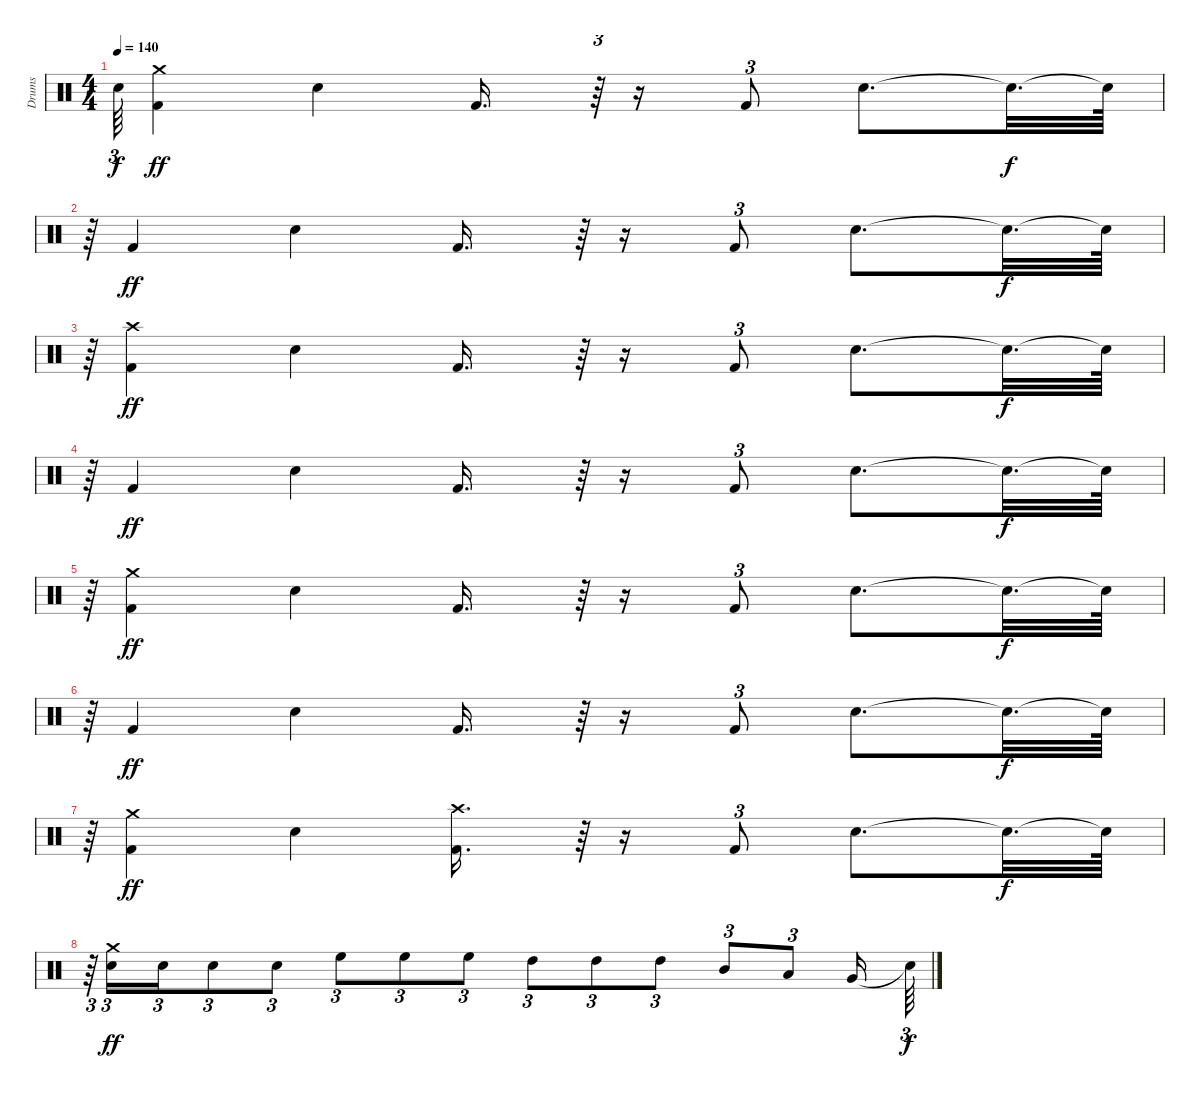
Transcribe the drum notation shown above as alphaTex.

\track ("Drums" "Drums") {instrument percussion}
\staff {score}
\articulation defaults
\ts (4 4)
\tempo 140
\clef neutral
\ks c "Snare (hit)"{t}.64{tu (3 2) dy f}
("Kick (hit) 2" "Crash medium (hit)").4{dy ff} "Snare (hit) 2".4 "Kick (hit) 2".16{d} r.64{tu (3 2)} r.16 "Kick (hit) 2".8{tu (3 2)} "Snare (hit) 2".8{d} "Snare (hit)"{t}.32{d dy f} "Snare (hit)"{t}.64 |
r.64{tu (3 2)} "Kick (hit) 2".4{dy ff} "Snare (hit) 2".4 "Kick (hit) 2".16{d} r.64{tu (3 2)} r.16 "Kick (hit) 2".8{tu (3 2)} "Snare (hit) 2".8{d} "Snare (hit)"{t}.32{d dy f} "Snare (hit)"{t}.64 |
r.64{tu (3 2)} ("Kick (hit) 2" "Crash high (hit)").4{dy ff} "Snare (hit) 2".4 "Kick (hit) 2".16{d} r.64{tu (3 2)} r.16 "Kick (hit) 2".8{tu (3 2)} "Snare (hit) 2".8{d} "Snare (hit)"{t}.32{d dy f} "Snare (hit)"{t}.64 |
r.64{tu (3 2)} "Kick (hit) 2".4{dy ff} "Snare (hit) 2".4 "Kick (hit) 2".16{d} r.64{tu (3 2)} r.16 "Kick (hit) 2".8{tu (3 2)} "Snare (hit) 2".8{d} "Snare (hit)"{t}.32{d dy f} "Snare (hit)"{t}.64 |
r.64{tu (3 2)} ("Kick (hit) 2" "Crash medium (hit)").4{dy ff} "Snare (hit) 2".4 "Kick (hit) 2".16{d} r.64{tu (3 2)} r.16 "Kick (hit) 2".8{tu (3 2)} "Snare (hit) 2".8{d} "Snare (hit)"{t}.32{d dy f} "Snare (hit)"{t}.64 |
r.64{tu (3 2)} "Kick (hit) 2".4{dy ff} "Snare (hit) 2".4 "Kick (hit) 2".16{d} r.64{tu (3 2)} r.16 "Kick (hit) 2".8{tu (3 2)} "Snare (hit) 2".8{d} "Snare (hit)"{t}.32{d dy f} "Snare (hit)"{t}.64 |
r.64{tu (3 2)} ("Kick (hit) 2" "Crash medium (hit)").4{dy ff} "Snare (hit) 2".4 ("Kick (hit) 2" "Crash high (hit)").16{d} r.64{tu (3 2)} r.16 "Kick (hit) 2".8{tu (3 2)} "Snare (hit) 2".8{d} "Snare (hit)"{t}.32{d dy f} "Snare (hit)"{t}.64 |
r.64{tu (3 2)} ("Snare (hit) 2" "Crash medium (hit)").16{tu (3 2) dy ff} "Snare (hit) 2".16{tu (3 2)} "Snare (hit) 2".8{tu (3 2)} "Snare (hit) 2".8{tu (3 2)} "High Floor Tom (hit)".8{tu (3 2)} "High Floor Tom (hit)".8{tu (3 2)} "High Floor Tom (hit)".8{tu (3 2)} "High Tom (hit)".8{tu (3 2)} "High Tom (hit)".8{tu (3 2)} "High Tom (hit)".8{tu (3 2)} "Mid Tom (hit)".8{tu (3 2)} "Low Tom (hit)".8{tu (3 2)} "Very Low Tom (hit)".16 "Snare (hit)"{t}.64{tu (3 2) dy f}
